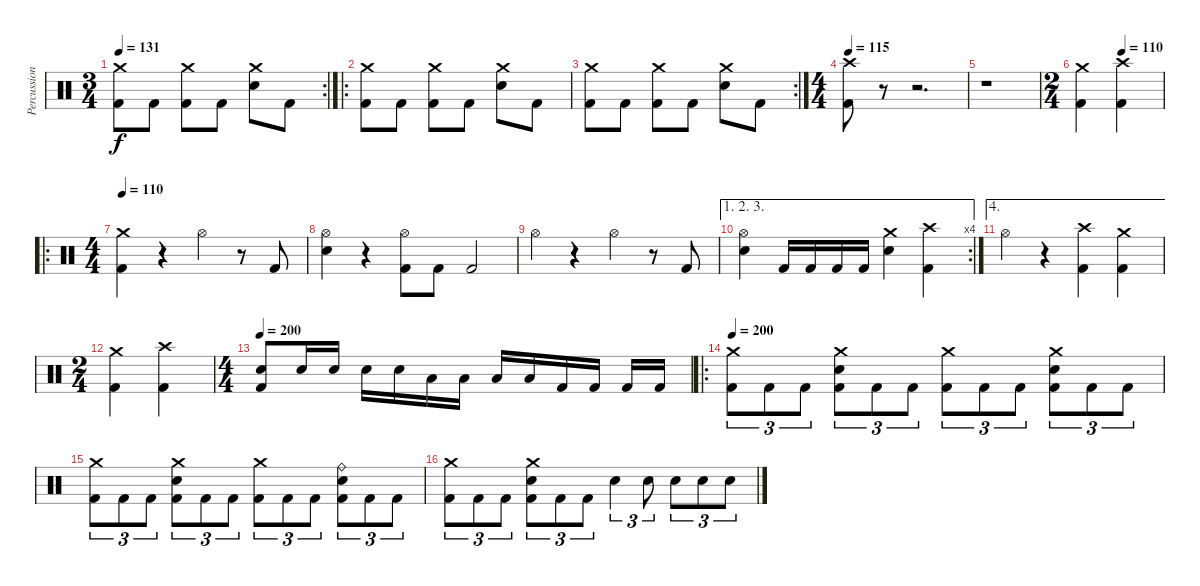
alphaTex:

\track ("Percussion" "Percussion") {instrument percussion}
\staff {score}
\articulation defaults
\rc 2
\ts (3 4)
\tempo 131
\clef neutral
\ks c
("Crash medium (hit)" "Kick (hit) 2").8{dy f} "Kick (hit) 2".8 ("Crash medium (hit)" "Kick (hit) 2").8 "Kick (hit) 2".8 ("Crash medium (hit)" "Electric Snare (hit)").8 "Kick (hit) 2".8 |
\ro
("Crash medium (hit)" "Kick (hit) 2").8 "Kick (hit) 2".8 ("Crash medium (hit)" "Kick (hit) 2").8 "Kick (hit) 2".8 ("Crash medium (hit)" "Electric Snare (hit)").8 "Kick (hit) 2".8 |
\rc 2
("Crash medium (hit)" "Kick (hit) 2").8 "Kick (hit) 2".8 ("Crash medium (hit)" "Kick (hit) 2").8 "Kick (hit) 2".8 ("Crash medium (hit)" "Electric Snare (hit)").8 "Kick (hit) 2".8 |
\ts (4 4)
\tempo 115
("Crash high (hit)" "Kick (hit) 2").8 r.8 r.2{d} |
r.1 |
\ts (2 4)
\tempo (110 0.5)
("Crash medium (hit)" "Kick (hit) 2").4 ("Crash high (hit)" "Kick (hit) 2").4 |
\ro
\ts (4 4)
\tempo 110
("Crash medium (hit)" "Kick (hit) 2").4 r.4 "Hi-Hat (open)".4 r.8 "Kick (hit) 2".8 |
("Hi-Hat (open)" "Electric Snare (hit)").4 r.4 ("Hi-Hat (open)" "Kick (hit) 2").8 "Kick (hit) 2".8 "Kick (hit) 2".2 |
"Hi-Hat (open)".4 r.4 "Hi-Hat (open)".4 r.8 "Kick (hit) 2".8 |
\ae (1 2 3)
\rc 4
("Hi-Hat (open)" "Electric Snare (hit)").4 "Kick (hit) 2".16 "Kick (hit) 2".16 "Kick (hit) 2".16 "Kick (hit) 2".16 ("Crash medium (hit)" "Electric Snare (hit)").4 ("Crash high (hit)" "Kick (hit) 2").4 |
\ae 4 "Hi-Hat (open)".4
r.4 ("Crash high (hit)" "Kick (hit) 2").4 ("Crash medium (hit)" "Kick (hit) 2").4 |
\ts (2 4)
("Crash medium (hit)" "Kick (hit) 2").4 ("Crash high (hit)" "Kick (hit) 2").4 |
\ts (4 4)
\tempo 200
("Electric Snare (hit)" "Kick (hit) 2").8 "Electric Snare (hit)".16 "Electric Snare (hit)".16 "Electric Snare (hit)".16 "Electric Snare (hit)".16 "Low Tom (hit)".16 "Low Tom (hit)".16 "Low Tom (hit)".16 "Low Tom (hit)".16 "Kick (hit) 2".16 "Kick (hit) 2".16 "Kick (hit) 2".16 "Kick (hit) 2".16 |
\ro
\tempo 200
("Crash medium (hit)" "Kick (hit) 2").8{tu (3 2)} "Kick (hit) 2".8{tu (3 2)} "Kick (hit) 2".8{tu (3 2)} ("Crash medium (hit)" "Electric Snare (hit)" "Kick (hit) 2").8{tu (3 2)} "Kick (hit) 2".8{tu (3 2)} "Kick (hit) 2".8{tu (3 2)} ("Crash medium (hit)" "Kick (hit) 2").8{tu (3 2)} "Kick (hit) 2".8{tu (3 2)} "Kick (hit) 2".8{tu (3 2)} ("Crash medium (hit)" "Electric Snare (hit)" "Kick (hit) 2").8{tu (3 2)} "Kick (hit) 2".8{tu (3 2)} "Kick (hit) 2".8{tu (3 2)} |
("Crash medium (hit)" "Kick (hit) 2").8{tu (3 2)} "Kick (hit) 2".8{tu (3 2)} "Kick (hit) 2".8{tu (3 2)} ("Crash medium (hit)" "Electric Snare (hit)" "Kick (hit) 2").8{tu (3 2)} "Kick (hit) 2".8{tu (3 2)} "Kick (hit) 2".8{tu (3 2)} ("Crash medium (hit)" "Kick (hit) 2").8{tu (3 2)} "Kick (hit) 2".8{tu (3 2)} "Kick (hit) 2".8{tu (3 2)} ("Ride (bell)" "Electric Snare (hit)" "Kick (hit) 2").8{tu (3 2)} "Kick (hit) 2".8{tu (3 2)} "Kick (hit) 2".8{tu (3 2)} |
("Crash medium (hit)" "Kick (hit) 2").8{tu (3 2)} "Kick (hit) 2".8{tu (3 2)} "Kick (hit) 2".8{tu (3 2)} ("Crash medium (hit)" "Electric Snare (hit)" "Kick (hit) 2").8{tu (3 2)} "Kick (hit) 2".8{tu (3 2)} "Kick (hit) 2".8{tu (3 2)} "Electric Snare (hit)".4{tu (3 2)} "Electric Snare (hit)".8{tu (3 2)} "Electric Snare (hit)".8{tu (3 2)} "Electric Snare (hit)".8{tu (3 2)} "Electric Snare (hit)".8{tu (3 2)}
